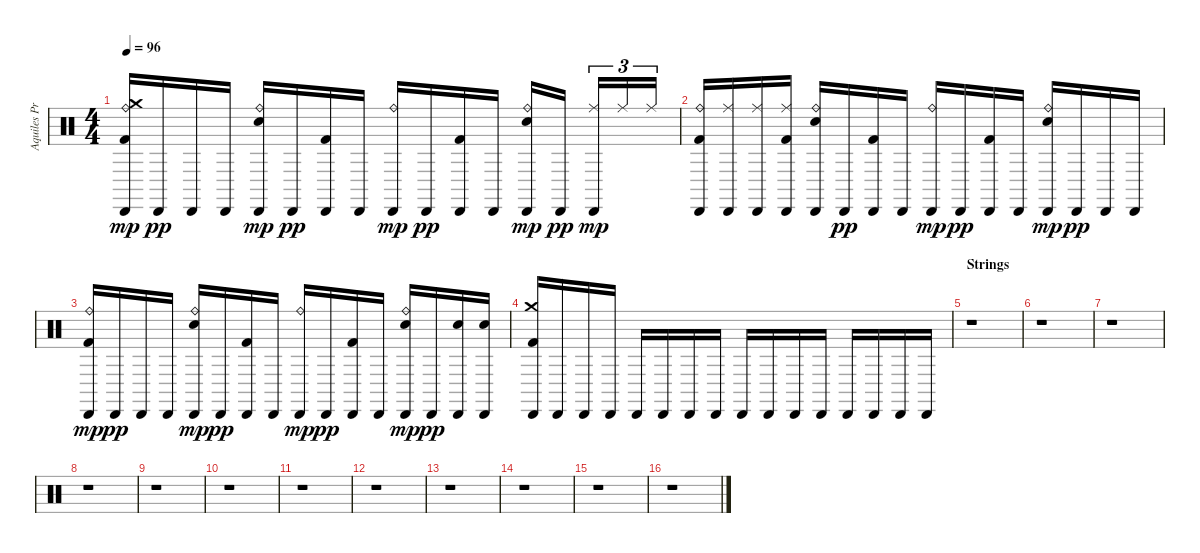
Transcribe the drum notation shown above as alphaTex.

\track ("Aquiles Priester" "Aquiles Pr") {instrument percussion}
\staff {score}
\articulation defaults
\ts (4 4)
\tempo 96
\clef neutral
\ks c
("Cabasa (hit)" "Crash medium (hit)" "Ride (bell)" "Kick (hit) 2").16{dy mp} "Cabasa (hit)".16{dy pp} "Cabasa (hit)".16 "Cabasa (hit)".16 ("Cabasa (hit)" "Ride (bell)" "Snare (hit) 2").16{dy mp} "Cabasa (hit)".16{dy pp} ("Cabasa (hit)" "Kick (hit) 2").16 "Cabasa (hit)".16 ("Cabasa (hit)" "Ride (bell)").16{dy mp} "Cabasa (hit)".16{dy pp} ("Cabasa (hit)" "Kick (hit) 2").16 "Cabasa (hit)".16 ("Cabasa (hit)" "Ride (bell)" "Snare (hit) 2").16{dy mp} "Cabasa (hit)".16{dy pp} ("Cabasa (hit)" "Ride (middle)").16{tu (3 2) dy mp} "Ride (middle)".16{tu (3 2)} "Ride (middle)".16{tu (3 2)} |
("Cabasa (hit)" "Ride (bell)" "Kick (hit) 2").16 ("Cabasa (hit)" "Ride (middle)").16 ("Cabasa (hit)" "Ride (middle)").16 ("Cabasa (hit)" "Ride (middle)" "Kick (hit) 2").16 ("Cabasa (hit)" "Ride (bell)" "Snare (hit) 2").16 "Cabasa (hit)".16{dy pp} ("Cabasa (hit)" "Kick (hit) 2").16 "Cabasa (hit)".16 ("Cabasa (hit)" "Ride (bell)").16{dy mp} "Cabasa (hit)".16{dy pp} ("Cabasa (hit)" "Kick (hit) 2").16 "Cabasa (hit)".16 ("Cabasa (hit)" "Ride (bell)" "Snare (hit) 2").16{dy mp} "Cabasa (hit)".16{dy pp} "Cabasa (hit)".16 "Cabasa (hit)".16 |
("Cabasa (hit)" "Ride (bell)" "Kick (hit) 2").16{dy mp} "Cabasa (hit)".16{dy pp} "Cabasa (hit)".16 "Cabasa (hit)".16 ("Cabasa (hit)" "Ride (bell)" "Snare (hit) 2").16{dy mp} "Cabasa (hit)".16{dy pp} ("Cabasa (hit)" "Kick (hit) 2").16 "Cabasa (hit)".16 ("Cabasa (hit)" "Ride (bell)").16{dy mp} "Cabasa (hit)".16{dy pp} ("Cabasa (hit)" "Kick (hit) 2").16 "Cabasa (hit)".16 ("Cabasa (hit)" "Ride (bell)" "Snare (hit) 2").16{dy mp} "Cabasa (hit)".16{dy pp} ("Cabasa (hit)" "Snare (hit) 2").16 ("Cabasa (hit)" "Snare (hit) 2").16 |
("Cabasa (hit)" "Crash medium (hit)" "Kick (hit) 2").16 "Cabasa (hit)".16 "Cabasa (hit)".16 "Cabasa (hit)".16 "Cabasa (hit)".16 "Cabasa (hit)".16 "Cabasa (hit)".16 "Cabasa (hit)".16 "Cabasa (hit)".16 "Cabasa (hit)".16 "Cabasa (hit)".16 "Cabasa (hit)".16 "Cabasa (hit)".16 "Cabasa (hit)".16 "Cabasa (hit)".16 "Cabasa (hit)".16 |
\section ("" "Strings")
r.1 |
r.1 |
r.1 |
r.1 |
r.1 |
r.1 |
r.1 |
r.1 |
r.1 |
r.1 |
r.1 |
r.1
